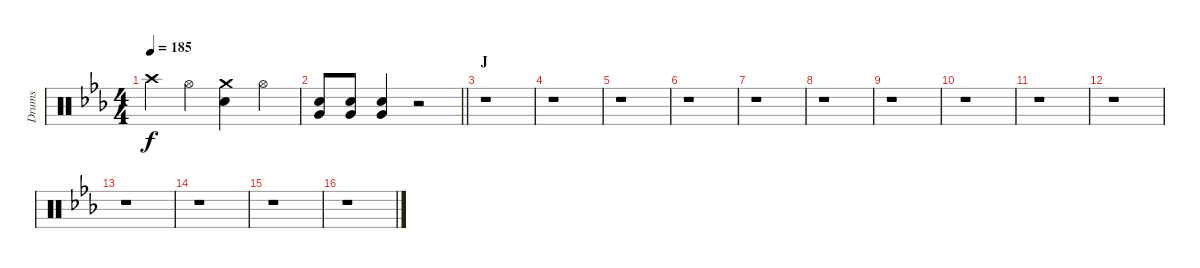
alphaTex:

\track ("Drums" "Drums") {instrument percussion}
\staff {score}
\articulation defaults
\ts (4 4)
\tempo 185
\clef neutral
\ks eb "Crash high (hit)".4{dy f} "Hi-Hat (open)".4
("Crash medium (hit)" "Snare (hit) 2").4 "Hi-Hat (open)".4 |
\barLineRight lightlight
("Snare (hit) 2" "Very Low Tom (hit)").8 ("Snare (hit) 2" "Very Low Tom (hit)").8 ("Snare (hit) 2" "Very Low Tom (hit)").4 r.2 |
\section ("" "J")
r.1 |
r.1 |
r.1 |
r.1 |
r.1 |
r.1 |
r.1 |
r.1 |
r.1 |
r.1 |
r.1 |
r.1 |
r.1 |
r.1
